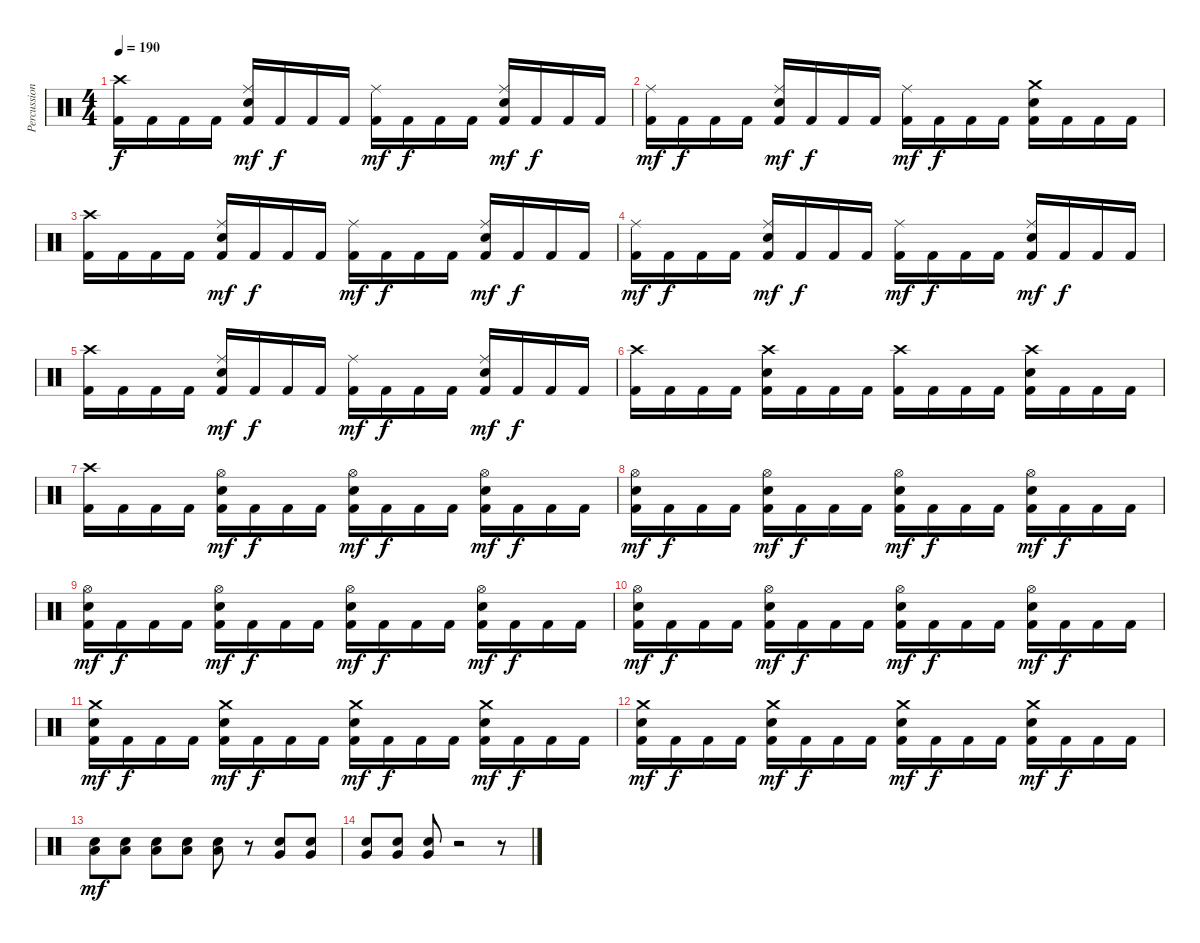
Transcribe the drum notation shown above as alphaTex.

\track ("Percussion" "Percussion") {instrument percussion}
\staff {score}
\articulation defaults
\ts (4 4)
\tempo 190
\clef neutral
\ks c
("Crash high (hit)" "Kick (hit) 2").16{dy f} "Kick (hit) 2".16 "Kick (hit) 2".16 "Kick (hit) 2".16 ("Ride (middle)" "Snare (hit) 2" "Kick (hit) 2").16{dy mf} "Kick (hit) 2".16{dy f} "Kick (hit) 2".16 "Kick (hit) 2".16 ("Ride (middle)" "Kick (hit) 2").16{dy mf} "Kick (hit) 2".16{dy f} "Kick (hit) 2".16 "Kick (hit) 2".16 ("Ride (middle)" "Snare (hit) 2" "Kick (hit) 2").16{dy mf} "Kick (hit) 2".16{dy f} "Kick (hit) 2".16 "Kick (hit) 2".16 |
("Ride (middle)" "Kick (hit) 2").16{dy mf} "Kick (hit) 2".16{dy f} "Kick (hit) 2".16 "Kick (hit) 2".16 ("Ride (middle)" "Snare (hit) 2" "Kick (hit) 2").16{dy mf} "Kick (hit) 2".16{dy f} "Kick (hit) 2".16 "Kick (hit) 2".16 ("Ride (middle)" "Kick (hit) 2").16{dy mf} "Kick (hit) 2".16{dy f} "Kick (hit) 2".16 "Kick (hit) 2".16 ("Crash medium (hit)" "Snare (hit) 2" "Kick (hit) 2").16 "Kick (hit) 2".16 "Kick (hit) 2".16 "Kick (hit) 2".16 |
("Crash high (hit)" "Kick (hit) 2").16 "Kick (hit) 2".16 "Kick (hit) 2".16 "Kick (hit) 2".16 ("Ride (middle)" "Snare (hit) 2" "Kick (hit) 2").16{dy mf} "Kick (hit) 2".16{dy f} "Kick (hit) 2".16 "Kick (hit) 2".16 ("Ride (middle)" "Kick (hit) 2").16{dy mf} "Kick (hit) 2".16{dy f} "Kick (hit) 2".16 "Kick (hit) 2".16 ("Ride (middle)" "Snare (hit) 2" "Kick (hit) 2").16{dy mf} "Kick (hit) 2".16{dy f} "Kick (hit) 2".16 "Kick (hit) 2".16 |
("Ride (middle)" "Kick (hit) 2").16{dy mf} "Kick (hit) 2".16{dy f} "Kick (hit) 2".16 "Kick (hit) 2".16 ("Ride (middle)" "Snare (hit) 2" "Kick (hit) 2").16{dy mf} "Kick (hit) 2".16{dy f} "Kick (hit) 2".16 "Kick (hit) 2".16 ("Ride (middle)" "Kick (hit) 2").16{dy mf} "Kick (hit) 2".16{dy f} "Kick (hit) 2".16 "Kick (hit) 2".16 ("Ride (middle)" "Snare (hit) 2" "Kick (hit) 2").16{dy mf} "Kick (hit) 2".16{dy f} "Kick (hit) 2".16 "Kick (hit) 2".16 |
("Crash high (hit)" "Kick (hit) 2").16 "Kick (hit) 2".16 "Kick (hit) 2".16 "Kick (hit) 2".16 ("Ride (middle)" "Snare (hit) 2" "Kick (hit) 2").16{dy mf} "Kick (hit) 2".16{dy f} "Kick (hit) 2".16 "Kick (hit) 2".16 ("Ride (middle)" "Kick (hit) 2").16{dy mf} "Kick (hit) 2".16{dy f} "Kick (hit) 2".16 "Kick (hit) 2".16 ("Ride (middle)" "Snare (hit) 2" "Kick (hit) 2").16{dy mf} "Kick (hit) 2".16{dy f} "Kick (hit) 2".16 "Kick (hit) 2".16 |
("Crash high (hit)" "Kick (hit) 2").16 "Kick (hit) 2".16 "Kick (hit) 2".16 "Kick (hit) 2".16 ("Crash high (hit)" "Snare (hit) 2" "Kick (hit) 2").16 "Kick (hit) 2".16 "Kick (hit) 2".16 "Kick (hit) 2".16 ("Crash high (hit)" "Kick (hit) 2").16 "Kick (hit) 2".16 "Kick (hit) 2".16 "Kick (hit) 2".16 ("Crash high (hit)" "Snare (hit) 2" "Kick (hit) 2").16 "Kick (hit) 2".16 "Kick (hit) 2".16 "Kick (hit) 2".16 |
("Crash high (hit)" "Kick (hit) 2").16 "Kick (hit) 2".16 "Kick (hit) 2".16 "Kick (hit) 2".16 ("Hi-Hat (open)" "Snare (hit) 2" "Kick (hit) 2").16{dy mf} "Kick (hit) 2".16{dy f} "Kick (hit) 2".16 "Kick (hit) 2".16 ("Hi-Hat (open)" "Snare (hit) 2" "Kick (hit) 2").16{dy mf} "Kick (hit) 2".16{dy f} "Kick (hit) 2".16 "Kick (hit) 2".16 ("Hi-Hat (open)" "Snare (hit) 2" "Kick (hit) 2").16{dy mf} "Kick (hit) 2".16{dy f} "Kick (hit) 2".16 "Kick (hit) 2".16 |
("Hi-Hat (open)" "Snare (hit) 2" "Kick (hit) 2").16{dy mf} "Kick (hit) 2".16{dy f} "Kick (hit) 2".16 "Kick (hit) 2".16 ("Hi-Hat (open)" "Snare (hit) 2" "Kick (hit) 2").16{dy mf} "Kick (hit) 2".16{dy f} "Kick (hit) 2".16 "Kick (hit) 2".16 ("Hi-Hat (open)" "Snare (hit) 2" "Kick (hit) 2").16{dy mf} "Kick (hit) 2".16{dy f} "Kick (hit) 2".16 "Kick (hit) 2".16 ("Hi-Hat (open)" "Snare (hit) 2" "Kick (hit) 2").16{dy mf} "Kick (hit) 2".16{dy f} "Kick (hit) 2".16 "Kick (hit) 2".16 |
("Hi-Hat (open)" "Snare (hit) 2" "Kick (hit) 2").16{dy mf} "Kick (hit) 2".16{dy f} "Kick (hit) 2".16 "Kick (hit) 2".16 ("Hi-Hat (open)" "Snare (hit) 2" "Kick (hit) 2").16{dy mf} "Kick (hit) 2".16{dy f} "Kick (hit) 2".16 "Kick (hit) 2".16 ("Hi-Hat (open)" "Snare (hit) 2" "Kick (hit) 2").16{dy mf} "Kick (hit) 2".16{dy f} "Kick (hit) 2".16 "Kick (hit) 2".16 ("Hi-Hat (open)" "Snare (hit) 2" "Kick (hit) 2").16{dy mf} "Kick (hit) 2".16{dy f} "Kick (hit) 2".16 "Kick (hit) 2".16 |
("Hi-Hat (open)" "Snare (hit) 2" "Kick (hit) 2").16{dy mf} "Kick (hit) 2".16{dy f} "Kick (hit) 2".16 "Kick (hit) 2".16 ("Hi-Hat (open)" "Snare (hit) 2" "Kick (hit) 2").16{dy mf} "Kick (hit) 2".16{dy f} "Kick (hit) 2".16 "Kick (hit) 2".16 ("Hi-Hat (open)" "Snare (hit) 2" "Kick (hit) 2").16{dy mf} "Kick (hit) 2".16{dy f} "Kick (hit) 2".16 "Kick (hit) 2".16 ("Hi-Hat (open)" "Snare (hit) 2" "Kick (hit) 2").16{dy mf} "Kick (hit) 2".16{dy f} "Kick (hit) 2".16 "Kick (hit) 2".16 |
("Crash medium (hit)" "Snare (hit) 2" "Kick (hit) 2").16{dy mf} "Kick (hit) 2".16{dy f} "Kick (hit) 2".16 "Kick (hit) 2".16 ("Crash medium (hit)" "Snare (hit) 2" "Kick (hit) 2").16{dy mf} "Kick (hit) 2".16{dy f} "Kick (hit) 2".16 "Kick (hit) 2".16 ("Crash medium (hit)" "Snare (hit) 2" "Kick (hit) 2").16{dy mf} "Kick (hit) 2".16{dy f} "Kick (hit) 2".16 "Kick (hit) 2".16 ("Crash medium (hit)" "Snare (hit) 2" "Kick (hit) 2").16{dy mf} "Kick (hit) 2".16{dy f} "Kick (hit) 2".16 "Kick (hit) 2".16 |
("Crash medium (hit)" "Snare (hit) 2" "Kick (hit) 2").16{dy mf} "Kick (hit) 2".16{dy f} "Kick (hit) 2".16 "Kick (hit) 2".16 ("Crash medium (hit)" "Snare (hit) 2" "Kick (hit) 2").16{dy mf} "Kick (hit) 2".16{dy f} "Kick (hit) 2".16 "Kick (hit) 2".16 ("Crash medium (hit)" "Snare (hit) 2" "Kick (hit) 2").16{dy mf} "Kick (hit) 2".16{dy f} "Kick (hit) 2".16 "Kick (hit) 2".16 ("Crash medium (hit)" "Snare (hit) 2" "Kick (hit) 2").16{dy mf} "Kick (hit) 2".16{dy f} "Kick (hit) 2".16 "Kick (hit) 2".16 |
("Snare (hit) 2" "Low Tom (hit)").8{dy mf} ("Snare (hit) 2" "Low Tom (hit)").8 ("Snare (hit) 2" "Low Tom (hit)").8 ("Snare (hit) 2" "Low Tom (hit)").8 ("Snare (hit) 2" "Low Tom (hit)").8 r.8 ("Snare (hit) 2" "Very Low Tom (hit)").8 ("Snare (hit) 2" "Very Low Tom (hit)").8 |
("Snare (hit) 2" "Very Low Tom (hit)").8 ("Snare (hit) 2" "Very Low Tom (hit)").8 ("Snare (hit) 2" "Very Low Tom (hit)").8 r.2 r.8
